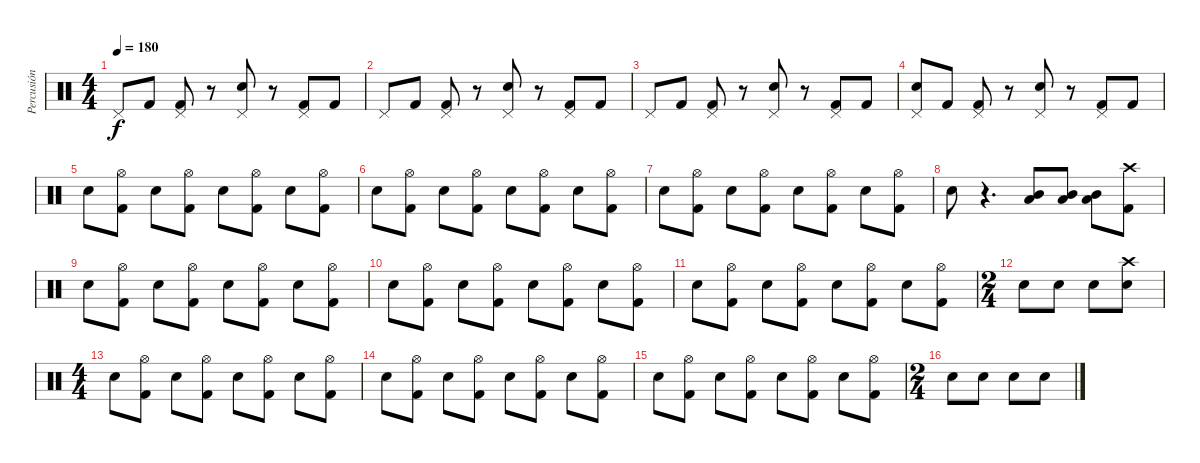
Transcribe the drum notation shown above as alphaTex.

\track ("Percusión" "Percusión") {instrument percussion}
\staff {score}
\articulation defaults
\ts (4 4)
\tempo 180
\clef neutral
\ks c "Pedal Hi-Hat (hit)".8{dy f} "Kick (hit) 2".8
("Pedal Hi-Hat (hit)" "Kick (hit) 2").8 r.8 ("Pedal Hi-Hat (hit)" "Electric Snare (hit)").8 r.8 ("Pedal Hi-Hat (hit)" "Kick (hit) 2").8 "Kick (hit) 2".8 |
"Pedal Hi-Hat (hit)".8 "Kick (hit) 2".8 ("Pedal Hi-Hat (hit)" "Kick (hit) 2").8 r.8 ("Pedal Hi-Hat (hit)" "Electric Snare (hit)").8 r.8 ("Pedal Hi-Hat (hit)" "Kick (hit) 2").8 "Kick (hit) 2".8 |
"Pedal Hi-Hat (hit)".8 "Kick (hit) 2".8 ("Pedal Hi-Hat (hit)" "Kick (hit) 2").8 r.8 ("Pedal Hi-Hat (hit)" "Electric Snare (hit)").8 r.8 ("Pedal Hi-Hat (hit)" "Kick (hit) 2").8 "Kick (hit) 2".8 |
("Pedal Hi-Hat (hit)" "Electric Snare (hit)").8 "Kick (hit) 2".8 ("Pedal Hi-Hat (hit)" "Kick (hit) 2").8 r.8 ("Pedal Hi-Hat (hit)" "Electric Snare (hit)").8 r.8 ("Pedal Hi-Hat (hit)" "Kick (hit) 2").8 "Kick (hit) 2".8 |
"Electric Snare (hit)".8 ("Hi-Hat (open)" "Kick (hit) 2").8 "Electric Snare (hit)".8 ("Hi-Hat (open)" "Kick (hit) 2").8 "Electric Snare (hit)".8 ("Hi-Hat (open)" "Kick (hit) 2").8 "Electric Snare (hit)".8 ("Hi-Hat (open)" "Kick (hit) 2").8 |
"Electric Snare (hit)".8 ("Hi-Hat (open)" "Kick (hit) 2").8 "Electric Snare (hit)".8 ("Hi-Hat (open)" "Kick (hit) 2").8 "Electric Snare (hit)".8 ("Hi-Hat (open)" "Kick (hit) 2").8 "Electric Snare (hit)".8 ("Hi-Hat (open)" "Kick (hit) 2").8 |
"Electric Snare (hit)".8 ("Hi-Hat (open)" "Kick (hit) 2").8 "Electric Snare (hit)".8 ("Hi-Hat (open)" "Kick (hit) 2").8 "Electric Snare (hit)".8 ("Hi-Hat (open)" "Kick (hit) 2").8 "Electric Snare (hit)".8 ("Hi-Hat (open)" "Kick (hit) 2").8 |
"Electric Snare (hit)".8 r.4{d} ("Mid Tom (hit)" "Low Tom (hit)").8 ("Mid Tom (hit)" "Low Tom (hit)").8 ("Mid Tom (hit)" "Low Tom (hit)").8 ("Crash high (hit)" "Kick (hit) 2").8 |
"Electric Snare (hit)".8 ("Hi-Hat (open)" "Kick (hit) 2").8 "Electric Snare (hit)".8 ("Hi-Hat (open)" "Kick (hit) 2").8 "Electric Snare (hit)".8 ("Hi-Hat (open)" "Kick (hit) 2").8 "Electric Snare (hit)".8 ("Hi-Hat (open)" "Kick (hit) 2").8 |
"Electric Snare (hit)".8 ("Hi-Hat (open)" "Kick (hit) 2").8 "Electric Snare (hit)".8 ("Hi-Hat (open)" "Kick (hit) 2").8 "Electric Snare (hit)".8 ("Hi-Hat (open)" "Kick (hit) 2").8 "Electric Snare (hit)".8 ("Hi-Hat (open)" "Kick (hit) 2").8 |
"Electric Snare (hit)".8 ("Hi-Hat (open)" "Kick (hit) 2").8 "Electric Snare (hit)".8 ("Hi-Hat (open)" "Kick (hit) 2").8 "Electric Snare (hit)".8 ("Hi-Hat (open)" "Kick (hit) 2").8 "Electric Snare (hit)".8 ("Hi-Hat (open)" "Kick (hit) 2").8 |
\ts (2 4)
"Electric Snare (hit)".8 "Electric Snare (hit)".8 "Electric Snare (hit)".8 ("Crash high (hit)" "Electric Snare (hit)").8 |
\ts (4 4)
"Electric Snare (hit)".8 ("Hi-Hat (open)" "Kick (hit) 2").8 "Electric Snare (hit)".8 ("Hi-Hat (open)" "Kick (hit) 2").8 "Electric Snare (hit)".8 ("Hi-Hat (open)" "Kick (hit) 2").8 "Electric Snare (hit)".8 ("Hi-Hat (open)" "Kick (hit) 2").8 |
"Electric Snare (hit)".8 ("Hi-Hat (open)" "Kick (hit) 2").8 "Electric Snare (hit)".8 ("Hi-Hat (open)" "Kick (hit) 2").8 "Electric Snare (hit)".8 ("Hi-Hat (open)" "Kick (hit) 2").8 "Electric Snare (hit)".8 ("Hi-Hat (open)" "Kick (hit) 2").8 |
"Electric Snare (hit)".8 ("Hi-Hat (open)" "Kick (hit) 2").8 "Electric Snare (hit)".8 ("Hi-Hat (open)" "Kick (hit) 2").8 "Electric Snare (hit)".8 ("Hi-Hat (open)" "Kick (hit) 2").8 "Electric Snare (hit)".8 ("Hi-Hat (open)" "Kick (hit) 2").8 |
\ts (2 4)
"Electric Snare (hit)".8 "Electric Snare (hit)".8 "Electric Snare (hit)".8 "Electric Snare (hit)".8
